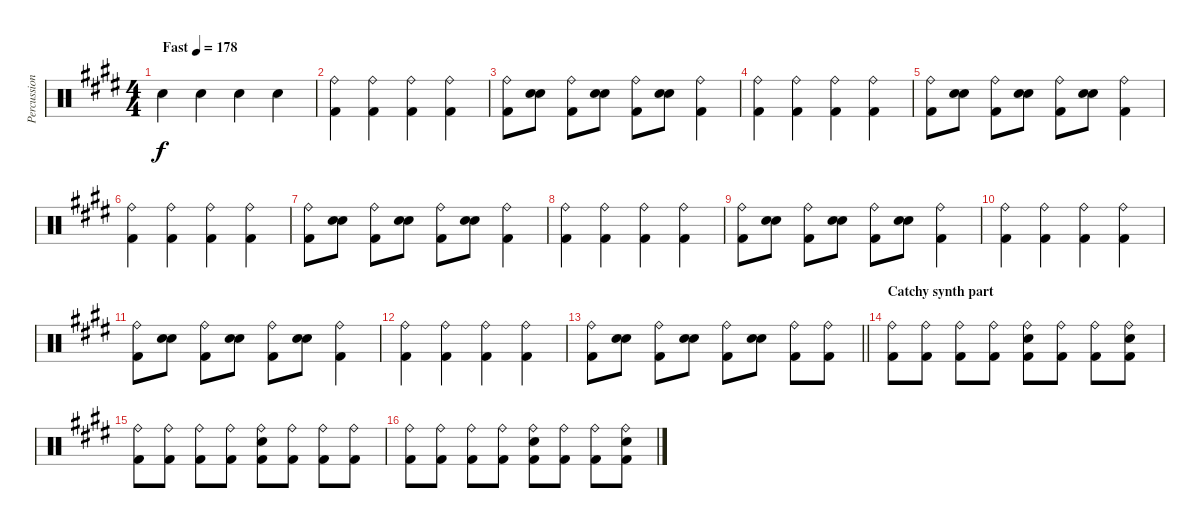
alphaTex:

\track ("Percussion" "Percussion") {instrument percussion}
\staff {score}
\articulation defaults
\ts (4 4)
\tempo (178 "Fast")
\clef neutral
\ks e "Hand Clap (hit)".4{dy f} "Hand Clap (hit)".4 "Hand Clap (hit)".4 "Hand Clap (hit)".4
|
("Ride (bell)" "Kick (hit) 2").4 ("Ride (bell)" "Kick (hit) 2").4 ("Ride (bell)" "Kick (hit) 2").4 ("Ride (bell)" "Kick (hit) 2").4 |
("Ride (bell)" "Kick (hit) 2").8 ("Hand Clap (hit)" "Electric Snare (hit)").8 ("Ride (bell)" "Kick (hit) 2").8 ("Hand Clap (hit)" "Electric Snare (hit)").8 ("Ride (bell)" "Kick (hit) 2").8 ("Hand Clap (hit)" "Electric Snare (hit)").8 ("Ride (bell)" "Kick (hit) 2").4 |
("Ride (bell)" "Kick (hit) 2").4 ("Ride (bell)" "Kick (hit) 2").4 ("Ride (bell)" "Kick (hit) 2").4 ("Ride (bell)" "Kick (hit) 2").4 |
("Ride (bell)" "Kick (hit) 2").8 ("Hand Clap (hit)" "Electric Snare (hit)").8 ("Ride (bell)" "Kick (hit) 2").8 ("Hand Clap (hit)" "Electric Snare (hit)").8 ("Ride (bell)" "Kick (hit) 2").8 ("Hand Clap (hit)" "Electric Snare (hit)").8 ("Ride (bell)" "Kick (hit) 2").4 |
("Ride (bell)" "Kick (hit) 2").4 ("Ride (bell)" "Kick (hit) 2").4 ("Ride (bell)" "Kick (hit) 2").4 ("Ride (bell)" "Kick (hit) 2").4 |
("Ride (bell)" "Kick (hit) 2").8 ("Hand Clap (hit)" "Electric Snare (hit)").8 ("Ride (bell)" "Kick (hit) 2").8 ("Hand Clap (hit)" "Electric Snare (hit)").8 ("Ride (bell)" "Kick (hit) 2").8 ("Hand Clap (hit)" "Electric Snare (hit)").8 ("Ride (bell)" "Kick (hit) 2").4 |
("Ride (bell)" "Kick (hit) 2").4 ("Ride (bell)" "Kick (hit) 2").4 ("Ride (bell)" "Kick (hit) 2").4 ("Ride (bell)" "Kick (hit) 2").4 |
("Ride (bell)" "Kick (hit) 2").8 ("Hand Clap (hit)" "Electric Snare (hit)").8 ("Ride (bell)" "Kick (hit) 2").8 ("Hand Clap (hit)" "Electric Snare (hit)").8 ("Ride (bell)" "Kick (hit) 2").8 ("Hand Clap (hit)" "Electric Snare (hit)").8 ("Ride (bell)" "Kick (hit) 2").4 |
("Ride (bell)" "Kick (hit) 2").4 ("Ride (bell)" "Kick (hit) 2").4 ("Ride (bell)" "Kick (hit) 2").4 ("Ride (bell)" "Kick (hit) 2").4 |
("Ride (bell)" "Kick (hit) 2").8 ("Hand Clap (hit)" "Electric Snare (hit)").8 ("Ride (bell)" "Kick (hit) 2").8 ("Hand Clap (hit)" "Electric Snare (hit)").8 ("Ride (bell)" "Kick (hit) 2").8 ("Hand Clap (hit)" "Electric Snare (hit)").8 ("Ride (bell)" "Kick (hit) 2").4 |
("Ride (bell)" "Kick (hit) 2").4 ("Ride (bell)" "Kick (hit) 2").4 ("Ride (bell)" "Kick (hit) 2").4 ("Ride (bell)" "Kick (hit) 2").4 |
\barLineRight lightlight
("Ride (bell)" "Kick (hit) 2").8 ("Hand Clap (hit)" "Electric Snare (hit)").8 ("Ride (bell)" "Kick (hit) 2").8 ("Hand Clap (hit)" "Electric Snare (hit)").8 ("Ride (bell)" "Kick (hit) 2").8 ("Hand Clap (hit)" "Electric Snare (hit)").8 ("Ride (bell)" "Kick (hit) 2").8 ("Ride (bell)" "Kick (hit) 2").8 |
\section ("" "Catchy synth part")
("Ride (bell)" "Kick (hit) 2").8 ("Ride (bell)" "Kick (hit) 2").8 ("Ride (bell)" "Kick (hit) 2").8 ("Ride (bell)" "Kick (hit) 2").8 ("Ride (bell)" "Electric Snare (hit)" "Kick (hit) 2").8 ("Ride (bell)" "Kick (hit) 2").8 ("Ride (bell)" "Kick (hit) 2").8 ("Ride (bell)" "Electric Snare (hit)" "Kick (hit) 2").8 |
("Ride (bell)" "Kick (hit) 2").8 ("Ride (bell)" "Kick (hit) 2").8 ("Ride (bell)" "Kick (hit) 2").8 ("Ride (bell)" "Kick (hit) 2").8 ("Ride (bell)" "Electric Snare (hit)" "Kick (hit) 2").8 ("Ride (bell)" "Kick (hit) 2").8 ("Ride (bell)" "Kick (hit) 2").8 ("Ride (bell)" "Kick (hit) 2").8 |
("Ride (bell)" "Kick (hit) 2").8 ("Ride (bell)" "Kick (hit) 2").8 ("Ride (bell)" "Kick (hit) 2").8 ("Ride (bell)" "Kick (hit) 2").8 ("Ride (bell)" "Electric Snare (hit)" "Kick (hit) 2").8 ("Ride (bell)" "Kick (hit) 2").8 ("Ride (bell)" "Kick (hit) 2").8 ("Ride (bell)" "Electric Snare (hit)" "Kick (hit) 2").8
